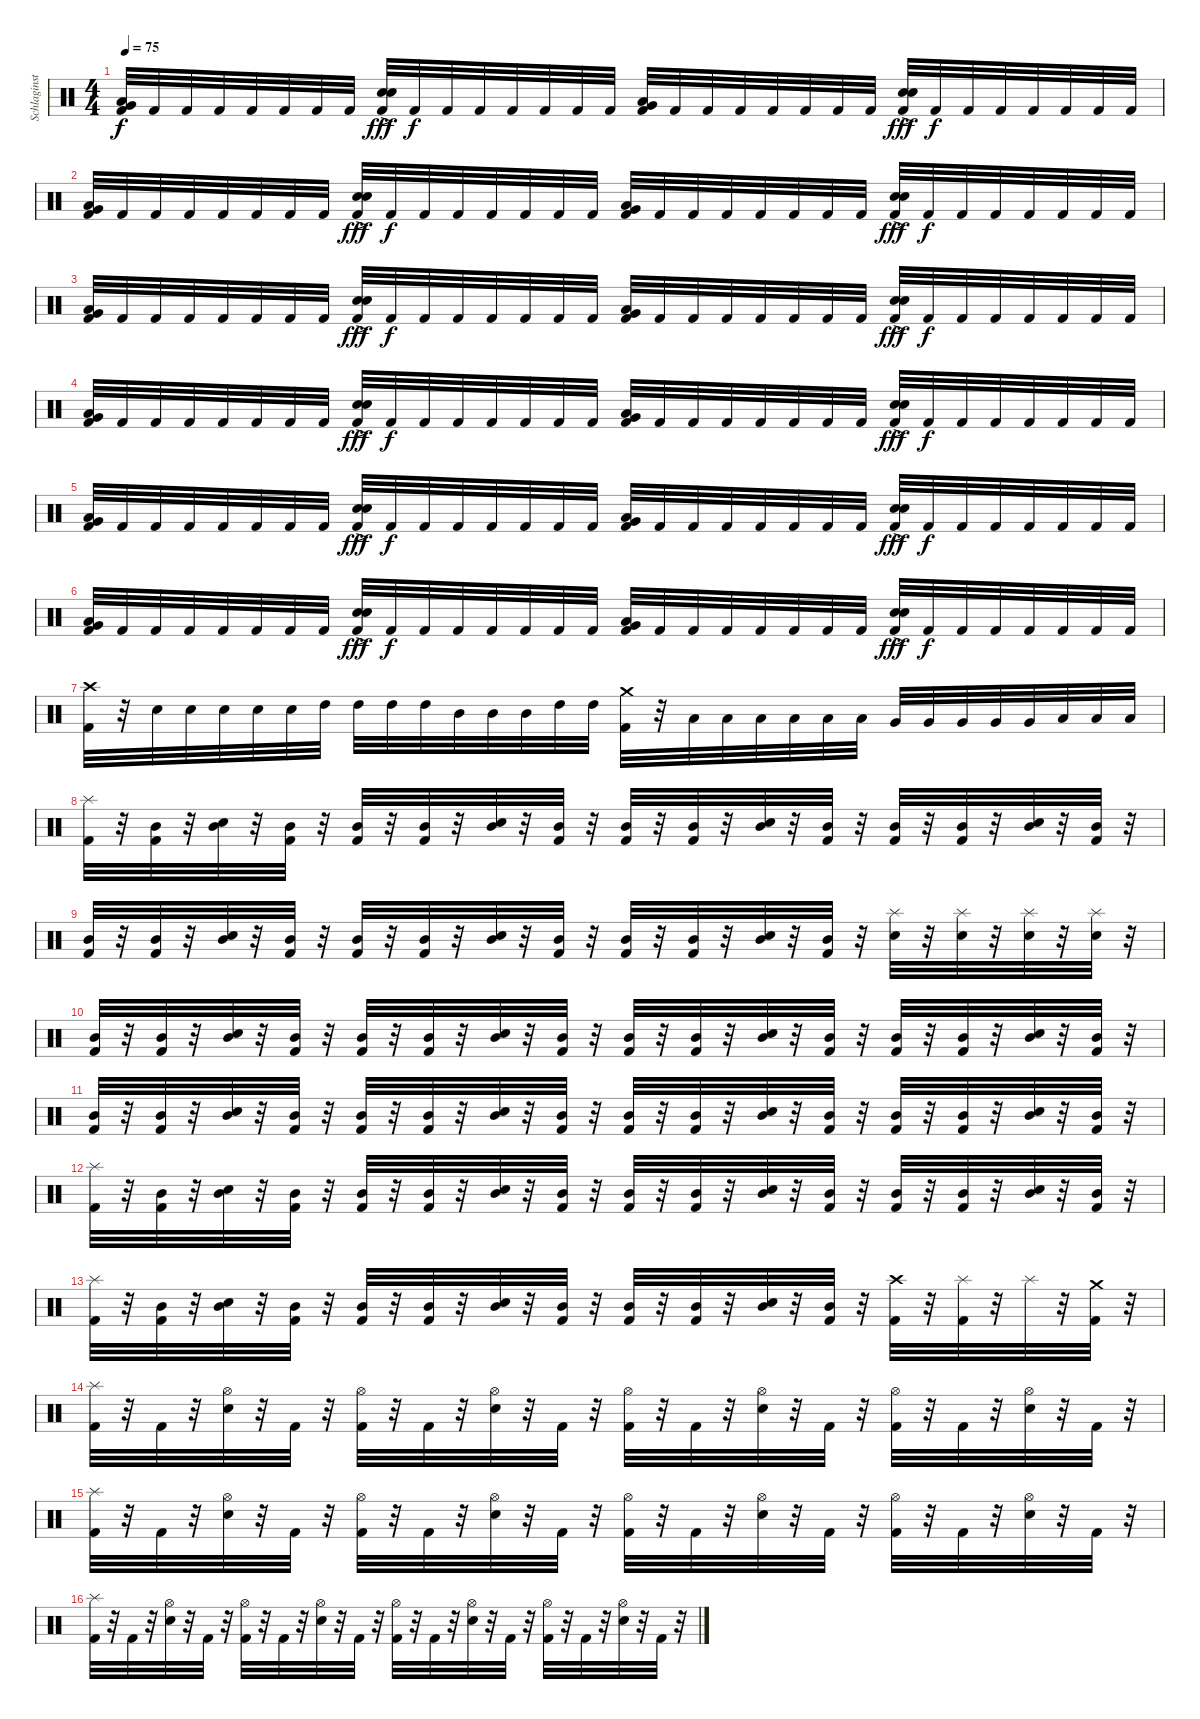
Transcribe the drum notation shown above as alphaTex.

\track ("Schlaginstrumente - Auswahl" "Schlaginst") {instrument percussion}
\staff {score}
\articulation defaults
\ts (4 4)
\tempo 75
\clef neutral
\ks c
("Kick (hit) 2" "Very Low Tom (hit)" "Low Tom (hit)").32{dy f} "Kick (hit) 2".32 "Kick (hit) 2".32 "Kick (hit) 2".32 "Kick (hit) 2".32 "Kick (hit) 2".32 "Kick (hit) 2".32 "Kick (hit) 2".32 ("Kick (hit) 2" "Electric Snare (hit)"{ac} "Electric Snare (hit)"{ac}).32{dy fff} "Kick (hit) 2".32{dy f} "Kick (hit) 2".32 "Kick (hit) 2".32 "Kick (hit) 2".32 "Kick (hit) 2".32 "Kick (hit) 2".32 "Kick (hit) 2".32 ("Kick (hit) 2" "Very Low Tom (hit)" "Low Tom (hit)").32 "Kick (hit) 2".32 "Kick (hit) 2".32 "Kick (hit) 2".32 "Kick (hit) 2".32 "Kick (hit) 2".32 "Kick (hit) 2".32 "Kick (hit) 2".32 ("Kick (hit) 2" "Electric Snare (hit)"{ac} "Electric Snare (hit)"{ac}).32{dy fff} "Kick (hit) 2".32{dy f} "Kick (hit) 2".32 "Kick (hit) 2".32 "Kick (hit) 2".32 "Kick (hit) 2".32 "Kick (hit) 2".32 "Kick (hit) 2".32 |
("Kick (hit) 2" "Very Low Tom (hit)" "Low Tom (hit)").32 "Kick (hit) 2".32 "Kick (hit) 2".32 "Kick (hit) 2".32 "Kick (hit) 2".32 "Kick (hit) 2".32 "Kick (hit) 2".32 "Kick (hit) 2".32 ("Kick (hit) 2" "Electric Snare (hit)"{ac} "Electric Snare (hit)"{ac}).32{dy fff} "Kick (hit) 2".32{dy f} "Kick (hit) 2".32 "Kick (hit) 2".32 "Kick (hit) 2".32 "Kick (hit) 2".32 "Kick (hit) 2".32 "Kick (hit) 2".32 ("Kick (hit) 2" "Very Low Tom (hit)" "Low Tom (hit)").32 "Kick (hit) 2".32 "Kick (hit) 2".32 "Kick (hit) 2".32 "Kick (hit) 2".32 "Kick (hit) 2".32 "Kick (hit) 2".32 "Kick (hit) 2".32 ("Kick (hit) 2" "Electric Snare (hit)"{ac} "Electric Snare (hit)"{ac}).32{dy fff} "Kick (hit) 2".32{dy f} "Kick (hit) 2".32 "Kick (hit) 2".32 "Kick (hit) 2".32 "Kick (hit) 2".32 "Kick (hit) 2".32 "Kick (hit) 2".32 |
("Kick (hit) 2" "Very Low Tom (hit)" "Low Tom (hit)").32 "Kick (hit) 2".32 "Kick (hit) 2".32 "Kick (hit) 2".32 "Kick (hit) 2".32 "Kick (hit) 2".32 "Kick (hit) 2".32 "Kick (hit) 2".32 ("Kick (hit) 2" "Electric Snare (hit)"{ac} "Electric Snare (hit)"{ac}).32{dy fff} "Kick (hit) 2".32{dy f} "Kick (hit) 2".32 "Kick (hit) 2".32 "Kick (hit) 2".32 "Kick (hit) 2".32 "Kick (hit) 2".32 "Kick (hit) 2".32 ("Kick (hit) 2" "Very Low Tom (hit)" "Low Tom (hit)").32 "Kick (hit) 2".32 "Kick (hit) 2".32 "Kick (hit) 2".32 "Kick (hit) 2".32 "Kick (hit) 2".32 "Kick (hit) 2".32 "Kick (hit) 2".32 ("Kick (hit) 2" "Electric Snare (hit)"{ac} "Electric Snare (hit)"{ac}).32{dy fff} "Kick (hit) 2".32{dy f} "Kick (hit) 2".32 "Kick (hit) 2".32 "Kick (hit) 2".32 "Kick (hit) 2".32 "Kick (hit) 2".32 "Kick (hit) 2".32 |
("Kick (hit) 2" "Very Low Tom (hit)" "Low Tom (hit)").32 "Kick (hit) 2".32 "Kick (hit) 2".32 "Kick (hit) 2".32 "Kick (hit) 2".32 "Kick (hit) 2".32 "Kick (hit) 2".32 "Kick (hit) 2".32 ("Kick (hit) 2" "Electric Snare (hit)"{ac} "Electric Snare (hit)"{ac}).32{dy fff} "Kick (hit) 2".32{dy f} "Kick (hit) 2".32 "Kick (hit) 2".32 "Kick (hit) 2".32 "Kick (hit) 2".32 "Kick (hit) 2".32 "Kick (hit) 2".32 ("Kick (hit) 2" "Very Low Tom (hit)" "Low Tom (hit)").32 "Kick (hit) 2".32 "Kick (hit) 2".32 "Kick (hit) 2".32 "Kick (hit) 2".32 "Kick (hit) 2".32 "Kick (hit) 2".32 "Kick (hit) 2".32 ("Kick (hit) 2" "Electric Snare (hit)"{ac} "Electric Snare (hit)"{ac}).32{dy fff} "Kick (hit) 2".32{dy f} "Kick (hit) 2".32 "Kick (hit) 2".32 "Kick (hit) 2".32 "Kick (hit) 2".32 "Kick (hit) 2".32 "Kick (hit) 2".32 |
("Kick (hit) 2" "Very Low Tom (hit)" "Low Tom (hit)").32 "Kick (hit) 2".32 "Kick (hit) 2".32 "Kick (hit) 2".32 "Kick (hit) 2".32 "Kick (hit) 2".32 "Kick (hit) 2".32 "Kick (hit) 2".32 ("Kick (hit) 2" "Electric Snare (hit)"{ac} "Electric Snare (hit)"{ac}).32{dy fff} "Kick (hit) 2".32{dy f} "Kick (hit) 2".32 "Kick (hit) 2".32 "Kick (hit) 2".32 "Kick (hit) 2".32 "Kick (hit) 2".32 "Kick (hit) 2".32 ("Kick (hit) 2" "Very Low Tom (hit)" "Low Tom (hit)").32 "Kick (hit) 2".32 "Kick (hit) 2".32 "Kick (hit) 2".32 "Kick (hit) 2".32 "Kick (hit) 2".32 "Kick (hit) 2".32 "Kick (hit) 2".32 ("Kick (hit) 2" "Electric Snare (hit)"{ac} "Electric Snare (hit)"{ac}).32{dy fff} "Kick (hit) 2".32{dy f} "Kick (hit) 2".32 "Kick (hit) 2".32 "Kick (hit) 2".32 "Kick (hit) 2".32 "Kick (hit) 2".32 "Kick (hit) 2".32 |
("Kick (hit) 2" "Very Low Tom (hit)" "Low Tom (hit)").32 "Kick (hit) 2".32 "Kick (hit) 2".32 "Kick (hit) 2".32 "Kick (hit) 2".32 "Kick (hit) 2".32 "Kick (hit) 2".32 "Kick (hit) 2".32 ("Kick (hit) 2" "Electric Snare (hit)"{ac} "Electric Snare (hit)"{ac}).32{dy fff} "Kick (hit) 2".32{dy f} "Kick (hit) 2".32 "Kick (hit) 2".32 "Kick (hit) 2".32 "Kick (hit) 2".32 "Kick (hit) 2".32 "Kick (hit) 2".32 ("Kick (hit) 2" "Very Low Tom (hit)" "Low Tom (hit)").32 "Kick (hit) 2".32 "Kick (hit) 2".32 "Kick (hit) 2".32 "Kick (hit) 2".32 "Kick (hit) 2".32 "Kick (hit) 2".32 "Kick (hit) 2".32 ("Kick (hit) 2" "Electric Snare (hit)"{ac} "Electric Snare (hit)"{ac}).32{dy fff} "Kick (hit) 2".32{dy f} "Kick (hit) 2".32 "Kick (hit) 2".32 "Kick (hit) 2".32 "Kick (hit) 2".32 "Kick (hit) 2".32 "Kick (hit) 2".32 |
("Kick (hit) 2" "Crash high (hit)").32 r.32 "Electric Snare (hit)".32 "Electric Snare (hit)".32 "Electric Snare (hit)".32 "Electric Snare (hit)".32 "Electric Snare (hit)".32 "High Tom (hit)".32 "High Tom (hit)".32 "High Tom (hit)".32 "High Tom (hit)".32 "Mid Tom (hit)".32 "Mid Tom (hit)".32 "Mid Tom (hit)".32 "High Tom (hit)".32 "High Tom (hit)".32 ("Kick (hit) 2" "Crash medium (hit)").32 r.32 "Low Tom (hit)".32 "Low Tom (hit)".32 "Low Tom (hit)".32 "Low Tom (hit)".32 "Low Tom (hit)".32 "Low Tom (hit)".32 "Very Low Tom (hit)".32 "Very Low Tom (hit)".32 "Very Low Tom (hit)".32 "Very Low Tom (hit)".32 "Very Low Tom (hit)".32 "Low Floor Tom (hit)".32 "Low Floor Tom (hit)".32 "Low Floor Tom (hit)".32 |
("Kick (hit) 2" "Splash (hit)").32 r.32 ("Kick (hit) 2" "Mid Tom (hit)").32 r.32 ("Electric Snare (hit)" "Mid Tom (hit)").32 r.32 ("Kick (hit) 2" "Mid Tom (hit)").32 r.32 ("Kick (hit) 2" "Mid Tom (hit)").32 r.32 ("Kick (hit) 2" "Mid Tom (hit)").32 r.32 ("Electric Snare (hit)" "Mid Tom (hit)").32 r.32 ("Kick (hit) 2" "Mid Tom (hit)").32 r.32 ("Kick (hit) 2" "Mid Tom (hit)").32 r.32 ("Kick (hit) 2" "Mid Tom (hit)").32 r.32 ("Electric Snare (hit)" "Mid Tom (hit)").32 r.32 ("Kick (hit) 2" "Mid Tom (hit)").32 r.32 ("Kick (hit) 2" "Mid Tom (hit)").32 r.32 ("Kick (hit) 2" "Mid Tom (hit)").32 r.32 ("Electric Snare (hit)" "Mid Tom (hit)").32 r.32 ("Kick (hit) 2" "Mid Tom (hit)").32 r.32 |
("Kick (hit) 2" "Mid Tom (hit)").32 r.32 ("Kick (hit) 2" "Mid Tom (hit)").32 r.32 ("Electric Snare (hit)" "Mid Tom (hit)").32 r.32 ("Kick (hit) 2" "Mid Tom (hit)").32 r.32 ("Kick (hit) 2" "Mid Tom (hit)").32 r.32 ("Kick (hit) 2" "Mid Tom (hit)").32 r.32 ("Electric Snare (hit)" "Mid Tom (hit)").32 r.32 ("Kick (hit) 2" "Mid Tom (hit)").32 r.32 ("Kick (hit) 2" "Mid Tom (hit)").32 r.32 ("Kick (hit) 2" "Mid Tom (hit)").32 r.32 ("Electric Snare (hit)" "Mid Tom (hit)").32 r.32 ("Kick (hit) 2" "Mid Tom (hit)").32 r.32 ("Splash (hit)" "Electric Snare (hit)").32 r.32 ("Splash (hit)" "Electric Snare (hit)").32 r.32 ("Splash (hit)" "Electric Snare (hit)").32 r.32 ("Splash (hit)" "Electric Snare (hit)").32 r.32 |
("Kick (hit) 2" "Mid Tom (hit)").32 r.32 ("Kick (hit) 2" "Mid Tom (hit)").32 r.32 ("Electric Snare (hit)" "Mid Tom (hit)").32 r.32 ("Kick (hit) 2" "Mid Tom (hit)").32 r.32 ("Kick (hit) 2" "Mid Tom (hit)").32 r.32 ("Kick (hit) 2" "Mid Tom (hit)").32 r.32 ("Electric Snare (hit)" "Mid Tom (hit)").32 r.32 ("Kick (hit) 2" "Mid Tom (hit)").32 r.32 ("Kick (hit) 2" "Mid Tom (hit)").32 r.32 ("Kick (hit) 2" "Mid Tom (hit)").32 r.32 ("Electric Snare (hit)" "Mid Tom (hit)").32 r.32 ("Kick (hit) 2" "Mid Tom (hit)").32 r.32 ("Kick (hit) 2" "Mid Tom (hit)").32 r.32 ("Kick (hit) 2" "Mid Tom (hit)").32 r.32 ("Electric Snare (hit)" "Mid Tom (hit)").32 r.32 ("Kick (hit) 2" "Mid Tom (hit)").32 r.32 |
("Kick (hit) 2" "Mid Tom (hit)").32 r.32 ("Kick (hit) 2" "Mid Tom (hit)").32 r.32 ("Electric Snare (hit)" "Mid Tom (hit)").32 r.32 ("Kick (hit) 2" "Mid Tom (hit)").32 r.32 ("Kick (hit) 2" "Mid Tom (hit)").32 r.32 ("Kick (hit) 2" "Mid Tom (hit)").32 r.32 ("Electric Snare (hit)" "Mid Tom (hit)").32 r.32 ("Kick (hit) 2" "Mid Tom (hit)").32 r.32 ("Kick (hit) 2" "Mid Tom (hit)").32 r.32 ("Kick (hit) 2" "Mid Tom (hit)").32 r.32 ("Electric Snare (hit)" "Mid Tom (hit)").32 r.32 ("Kick (hit) 2" "Mid Tom (hit)").32 r.32 ("Kick (hit) 2" "Mid Tom (hit)").32 r.32 ("Kick (hit) 2" "Mid Tom (hit)").32 r.32 ("Electric Snare (hit)" "Mid Tom (hit)").32 r.32 ("Kick (hit) 2" "Mid Tom (hit)").32 r.32 |
("Kick (hit) 2" "Splash (hit)").32 r.32 ("Kick (hit) 2" "Mid Tom (hit)").32 r.32 ("Electric Snare (hit)" "Mid Tom (hit)").32 r.32 ("Kick (hit) 2" "Mid Tom (hit)").32 r.32 ("Kick (hit) 2" "Mid Tom (hit)").32 r.32 ("Kick (hit) 2" "Mid Tom (hit)").32 r.32 ("Electric Snare (hit)" "Mid Tom (hit)").32 r.32 ("Kick (hit) 2" "Mid Tom (hit)").32 r.32 ("Kick (hit) 2" "Mid Tom (hit)").32 r.32 ("Kick (hit) 2" "Mid Tom (hit)").32 r.32 ("Electric Snare (hit)" "Mid Tom (hit)").32 r.32 ("Kick (hit) 2" "Mid Tom (hit)").32 r.32 ("Kick (hit) 2" "Mid Tom (hit)").32 r.32 ("Kick (hit) 2" "Mid Tom (hit)").32 r.32 ("Electric Snare (hit)" "Mid Tom (hit)").32 r.32 ("Kick (hit) 2" "Mid Tom (hit)").32 r.32 |
("Kick (hit) 2" "Splash (hit)").32 r.32 ("Kick (hit) 2" "Mid Tom (hit)").32 r.32 ("Electric Snare (hit)" "Mid Tom (hit)").32 r.32 ("Kick (hit) 2" "Mid Tom (hit)").32 r.32 ("Kick (hit) 2" "Mid Tom (hit)").32 r.32 ("Kick (hit) 2" "Mid Tom (hit)").32 r.32 ("Electric Snare (hit)" "Mid Tom (hit)").32 r.32 ("Kick (hit) 2" "Mid Tom (hit)").32 r.32 ("Kick (hit) 2" "Mid Tom (hit)").32 r.32 ("Kick (hit) 2" "Mid Tom (hit)").32 r.32 ("Electric Snare (hit)" "Mid Tom (hit)").32 r.32 ("Kick (hit) 2" "Mid Tom (hit)").32 r.32 ("Kick (hit) 2" "Crash high (hit)").32 r.32 ("Kick (hit) 2" "Splash (hit)").32 r.32 "Splash (hit)".32 r.32 ("Kick (hit) 2" "Crash medium (hit)").32 r.32 |
("Kick (hit) 2" "Splash (hit)").32 r.32 "Kick (hit) 2".32 r.32 ("Electric Snare (hit)" "Hi-Hat (open)").32 r.32 "Kick (hit) 2".32 r.32 ("Kick (hit) 2" "Hi-Hat (open)").32 r.32 "Kick (hit) 2".32 r.32 ("Electric Snare (hit)" "Hi-Hat (open)").32 r.32 "Kick (hit) 2".32 r.32 ("Kick (hit) 2" "Hi-Hat (open)").32 r.32 "Kick (hit) 2".32 r.32 ("Electric Snare (hit)" "Hi-Hat (open)").32 r.32 "Kick (hit) 2".32 r.32 ("Kick (hit) 2" "Hi-Hat (open)").32 r.32 "Kick (hit) 2".32 r.32 ("Electric Snare (hit)" "Hi-Hat (open)").32 r.32 "Kick (hit) 2".32 r.32 |
("Kick (hit) 2" "Splash (hit)").32 r.32 "Kick (hit) 2".32 r.32 ("Electric Snare (hit)" "Hi-Hat (open)").32 r.32 "Kick (hit) 2".32 r.32 ("Kick (hit) 2" "Hi-Hat (open)").32 r.32 "Kick (hit) 2".32 r.32 ("Electric Snare (hit)" "Hi-Hat (open)").32 r.32 "Kick (hit) 2".32 r.32 ("Kick (hit) 2" "Hi-Hat (open)").32 r.32 "Kick (hit) 2".32 r.32 ("Electric Snare (hit)" "Hi-Hat (open)").32 r.32 "Kick (hit) 2".32 r.32 ("Kick (hit) 2" "Hi-Hat (open)").32 r.32 "Kick (hit) 2".32 r.32 ("Electric Snare (hit)" "Hi-Hat (open)").32 r.32 "Kick (hit) 2".32 r.32 |
("Kick (hit) 2" "Splash (hit)").32 r.32 "Kick (hit) 2".32 r.32 ("Electric Snare (hit)" "Hi-Hat (open)").32 r.32 "Kick (hit) 2".32 r.32 ("Kick (hit) 2" "Hi-Hat (open)").32 r.32 "Kick (hit) 2".32 r.32 ("Electric Snare (hit)" "Hi-Hat (open)").32 r.32 "Kick (hit) 2".32 r.32 ("Kick (hit) 2" "Hi-Hat (open)").32 r.32 "Kick (hit) 2".32 r.32 ("Electric Snare (hit)" "Hi-Hat (open)").32 r.32 "Kick (hit) 2".32 r.32 ("Kick (hit) 2" "Hi-Hat (open)").32 r.32 "Kick (hit) 2".32 r.32 ("Electric Snare (hit)" "Hi-Hat (open)").32 r.32 "Kick (hit) 2".32 r.32
